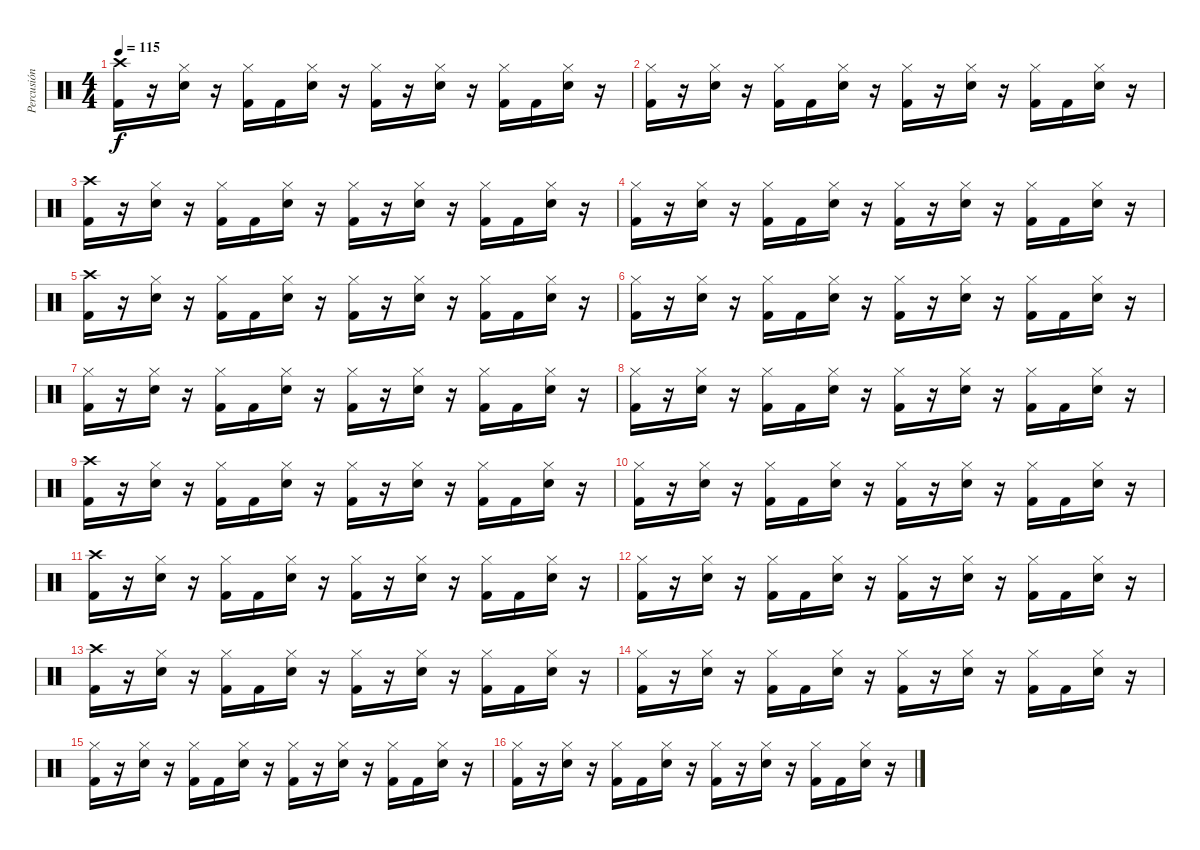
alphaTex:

\track ("Percusión" "Percusión") {instrument percussion}
\staff {score}
\articulation defaults
\ts (4 4)
\tempo 115
\clef neutral
\ks c
("Crash high (hit)" "Kick (hit) 2").16{dy f} r.16 ("Hi-Hat (closed)" "Electric Snare (hit)").16 r.16 ("Hi-Hat (closed)" "Kick (hit) 2").16 "Kick (hit) 2".16 ("Hi-Hat (closed)" "Electric Snare (hit)").16 r.16 ("Hi-Hat (closed)" "Kick (hit) 2").16 r.16 ("Hi-Hat (closed)" "Electric Snare (hit)").16 r.16 ("Hi-Hat (closed)" "Kick (hit) 2").16 "Kick (hit) 2".16 ("Hi-Hat (closed)" "Electric Snare (hit)").16 r.16 |
("Hi-Hat (closed)" "Kick (hit) 2").16 r.16 ("Hi-Hat (closed)" "Electric Snare (hit)").16 r.16 ("Hi-Hat (closed)" "Kick (hit) 2").16 "Kick (hit) 2".16 ("Hi-Hat (closed)" "Electric Snare (hit)").16 r.16 ("Hi-Hat (closed)" "Kick (hit) 2").16 r.16 ("Hi-Hat (closed)" "Electric Snare (hit)").16 r.16 ("Hi-Hat (closed)" "Kick (hit) 2").16 "Kick (hit) 2".16 ("Hi-Hat (closed)" "Electric Snare (hit)").16 r.16 |
("Crash high (hit)" "Kick (hit) 2").16 r.16 ("Hi-Hat (closed)" "Electric Snare (hit)").16 r.16 ("Hi-Hat (closed)" "Kick (hit) 2").16 "Kick (hit) 2".16 ("Hi-Hat (closed)" "Electric Snare (hit)").16 r.16 ("Hi-Hat (closed)" "Kick (hit) 2").16 r.16 ("Hi-Hat (closed)" "Electric Snare (hit)").16 r.16 ("Hi-Hat (closed)" "Kick (hit) 2").16 "Kick (hit) 2".16 ("Hi-Hat (closed)" "Electric Snare (hit)").16 r.16 |
("Hi-Hat (closed)" "Kick (hit) 2").16 r.16 ("Hi-Hat (closed)" "Electric Snare (hit)").16 r.16 ("Hi-Hat (closed)" "Kick (hit) 2").16 "Kick (hit) 2".16 ("Hi-Hat (closed)" "Electric Snare (hit)").16 r.16 ("Hi-Hat (closed)" "Kick (hit) 2").16 r.16 ("Hi-Hat (closed)" "Electric Snare (hit)").16 r.16 ("Hi-Hat (closed)" "Kick (hit) 2").16 "Kick (hit) 2".16 ("Hi-Hat (closed)" "Electric Snare (hit)").16 r.16 |
("Crash high (hit)" "Kick (hit) 2").16 r.16 ("Hi-Hat (closed)" "Electric Snare (hit)").16 r.16 ("Hi-Hat (closed)" "Kick (hit) 2").16 "Kick (hit) 2".16 ("Hi-Hat (closed)" "Electric Snare (hit)").16 r.16 ("Hi-Hat (closed)" "Kick (hit) 2").16 r.16 ("Hi-Hat (closed)" "Electric Snare (hit)").16 r.16 ("Hi-Hat (closed)" "Kick (hit) 2").16 "Kick (hit) 2".16 ("Hi-Hat (closed)" "Electric Snare (hit)").16 r.16 |
("Hi-Hat (closed)" "Kick (hit) 2").16 r.16 ("Hi-Hat (closed)" "Electric Snare (hit)").16 r.16 ("Hi-Hat (closed)" "Kick (hit) 2").16 "Kick (hit) 2".16 ("Hi-Hat (closed)" "Electric Snare (hit)").16 r.16 ("Hi-Hat (closed)" "Kick (hit) 2").16 r.16 ("Hi-Hat (closed)" "Electric Snare (hit)").16 r.16 ("Hi-Hat (closed)" "Kick (hit) 2").16 "Kick (hit) 2".16 ("Hi-Hat (closed)" "Electric Snare (hit)").16 r.16 |
("Hi-Hat (closed)" "Kick (hit) 2").16 r.16 ("Hi-Hat (closed)" "Electric Snare (hit)").16 r.16 ("Hi-Hat (closed)" "Kick (hit) 2").16 "Kick (hit) 2".16 ("Hi-Hat (closed)" "Electric Snare (hit)").16 r.16 ("Hi-Hat (closed)" "Kick (hit) 2").16 r.16 ("Hi-Hat (closed)" "Electric Snare (hit)").16 r.16 ("Hi-Hat (closed)" "Kick (hit) 2").16 "Kick (hit) 2".16 ("Hi-Hat (closed)" "Electric Snare (hit)").16 r.16 |
("Hi-Hat (closed)" "Kick (hit) 2").16 r.16 ("Hi-Hat (closed)" "Electric Snare (hit)").16 r.16 ("Hi-Hat (closed)" "Kick (hit) 2").16 "Kick (hit) 2".16 ("Hi-Hat (closed)" "Electric Snare (hit)").16 r.16 ("Hi-Hat (closed)" "Kick (hit) 2").16 r.16 ("Hi-Hat (closed)" "Electric Snare (hit)").16 r.16 ("Hi-Hat (closed)" "Kick (hit) 2").16 "Kick (hit) 2".16 ("Hi-Hat (closed)" "Electric Snare (hit)").16 r.16 |
("Crash high (hit)" "Kick (hit) 2").16 r.16 ("Hi-Hat (closed)" "Electric Snare (hit)").16 r.16 ("Hi-Hat (closed)" "Kick (hit) 2").16 "Kick (hit) 2".16 ("Hi-Hat (closed)" "Electric Snare (hit)").16 r.16 ("Hi-Hat (closed)" "Kick (hit) 2").16 r.16 ("Hi-Hat (closed)" "Electric Snare (hit)").16 r.16 ("Hi-Hat (closed)" "Kick (hit) 2").16 "Kick (hit) 2".16 ("Hi-Hat (closed)" "Electric Snare (hit)").16 r.16 |
("Hi-Hat (closed)" "Kick (hit) 2").16 r.16 ("Hi-Hat (closed)" "Electric Snare (hit)").16 r.16 ("Hi-Hat (closed)" "Kick (hit) 2").16 "Kick (hit) 2".16 ("Hi-Hat (closed)" "Electric Snare (hit)").16 r.16 ("Hi-Hat (closed)" "Kick (hit) 2").16 r.16 ("Hi-Hat (closed)" "Electric Snare (hit)").16 r.16 ("Hi-Hat (closed)" "Kick (hit) 2").16 "Kick (hit) 2".16 ("Hi-Hat (closed)" "Electric Snare (hit)").16 r.16 |
("Crash high (hit)" "Kick (hit) 2").16 r.16 ("Hi-Hat (closed)" "Electric Snare (hit)").16 r.16 ("Hi-Hat (closed)" "Kick (hit) 2").16 "Kick (hit) 2".16 ("Hi-Hat (closed)" "Electric Snare (hit)").16 r.16 ("Hi-Hat (closed)" "Kick (hit) 2").16 r.16 ("Hi-Hat (closed)" "Electric Snare (hit)").16 r.16 ("Hi-Hat (closed)" "Kick (hit) 2").16 "Kick (hit) 2".16 ("Hi-Hat (closed)" "Electric Snare (hit)").16 r.16 |
("Hi-Hat (closed)" "Kick (hit) 2").16 r.16 ("Hi-Hat (closed)" "Electric Snare (hit)").16 r.16 ("Hi-Hat (closed)" "Kick (hit) 2").16 "Kick (hit) 2".16 ("Hi-Hat (closed)" "Electric Snare (hit)").16 r.16 ("Hi-Hat (closed)" "Kick (hit) 2").16 r.16 ("Hi-Hat (closed)" "Electric Snare (hit)").16 r.16 ("Hi-Hat (closed)" "Kick (hit) 2").16 "Kick (hit) 2".16 ("Hi-Hat (closed)" "Electric Snare (hit)").16 r.16 |
("Crash high (hit)" "Kick (hit) 2").16 r.16 ("Hi-Hat (closed)" "Electric Snare (hit)").16 r.16 ("Hi-Hat (closed)" "Kick (hit) 2").16 "Kick (hit) 2".16 ("Hi-Hat (closed)" "Electric Snare (hit)").16 r.16 ("Hi-Hat (closed)" "Kick (hit) 2").16 r.16 ("Hi-Hat (closed)" "Electric Snare (hit)").16 r.16 ("Hi-Hat (closed)" "Kick (hit) 2").16 "Kick (hit) 2".16 ("Hi-Hat (closed)" "Electric Snare (hit)").16 r.16 |
("Hi-Hat (closed)" "Kick (hit) 2").16 r.16 ("Hi-Hat (closed)" "Electric Snare (hit)").16 r.16 ("Hi-Hat (closed)" "Kick (hit) 2").16 "Kick (hit) 2".16 ("Hi-Hat (closed)" "Electric Snare (hit)").16 r.16 ("Hi-Hat (closed)" "Kick (hit) 2").16 r.16 ("Hi-Hat (closed)" "Electric Snare (hit)").16 r.16 ("Hi-Hat (closed)" "Kick (hit) 2").16 "Kick (hit) 2".16 ("Hi-Hat (closed)" "Electric Snare (hit)").16 r.16 |
("Hi-Hat (closed)" "Kick (hit) 2").16 r.16 ("Hi-Hat (closed)" "Electric Snare (hit)").16 r.16 ("Hi-Hat (closed)" "Kick (hit) 2").16 "Kick (hit) 2".16 ("Hi-Hat (closed)" "Electric Snare (hit)").16 r.16 ("Hi-Hat (closed)" "Kick (hit) 2").16 r.16 ("Hi-Hat (closed)" "Electric Snare (hit)").16 r.16 ("Hi-Hat (closed)" "Kick (hit) 2").16 "Kick (hit) 2".16 ("Hi-Hat (closed)" "Electric Snare (hit)").16 r.16 |
("Hi-Hat (closed)" "Kick (hit) 2").16 r.16 ("Hi-Hat (closed)" "Electric Snare (hit)").16 r.16 ("Hi-Hat (closed)" "Kick (hit) 2").16 "Kick (hit) 2".16 ("Hi-Hat (closed)" "Electric Snare (hit)").16 r.16 ("Hi-Hat (closed)" "Kick (hit) 2").16 r.16 ("Hi-Hat (closed)" "Electric Snare (hit)").16 r.16 ("Hi-Hat (closed)" "Kick (hit) 2").16 "Kick (hit) 2".16 ("Hi-Hat (closed)" "Electric Snare (hit)").16 r.16
